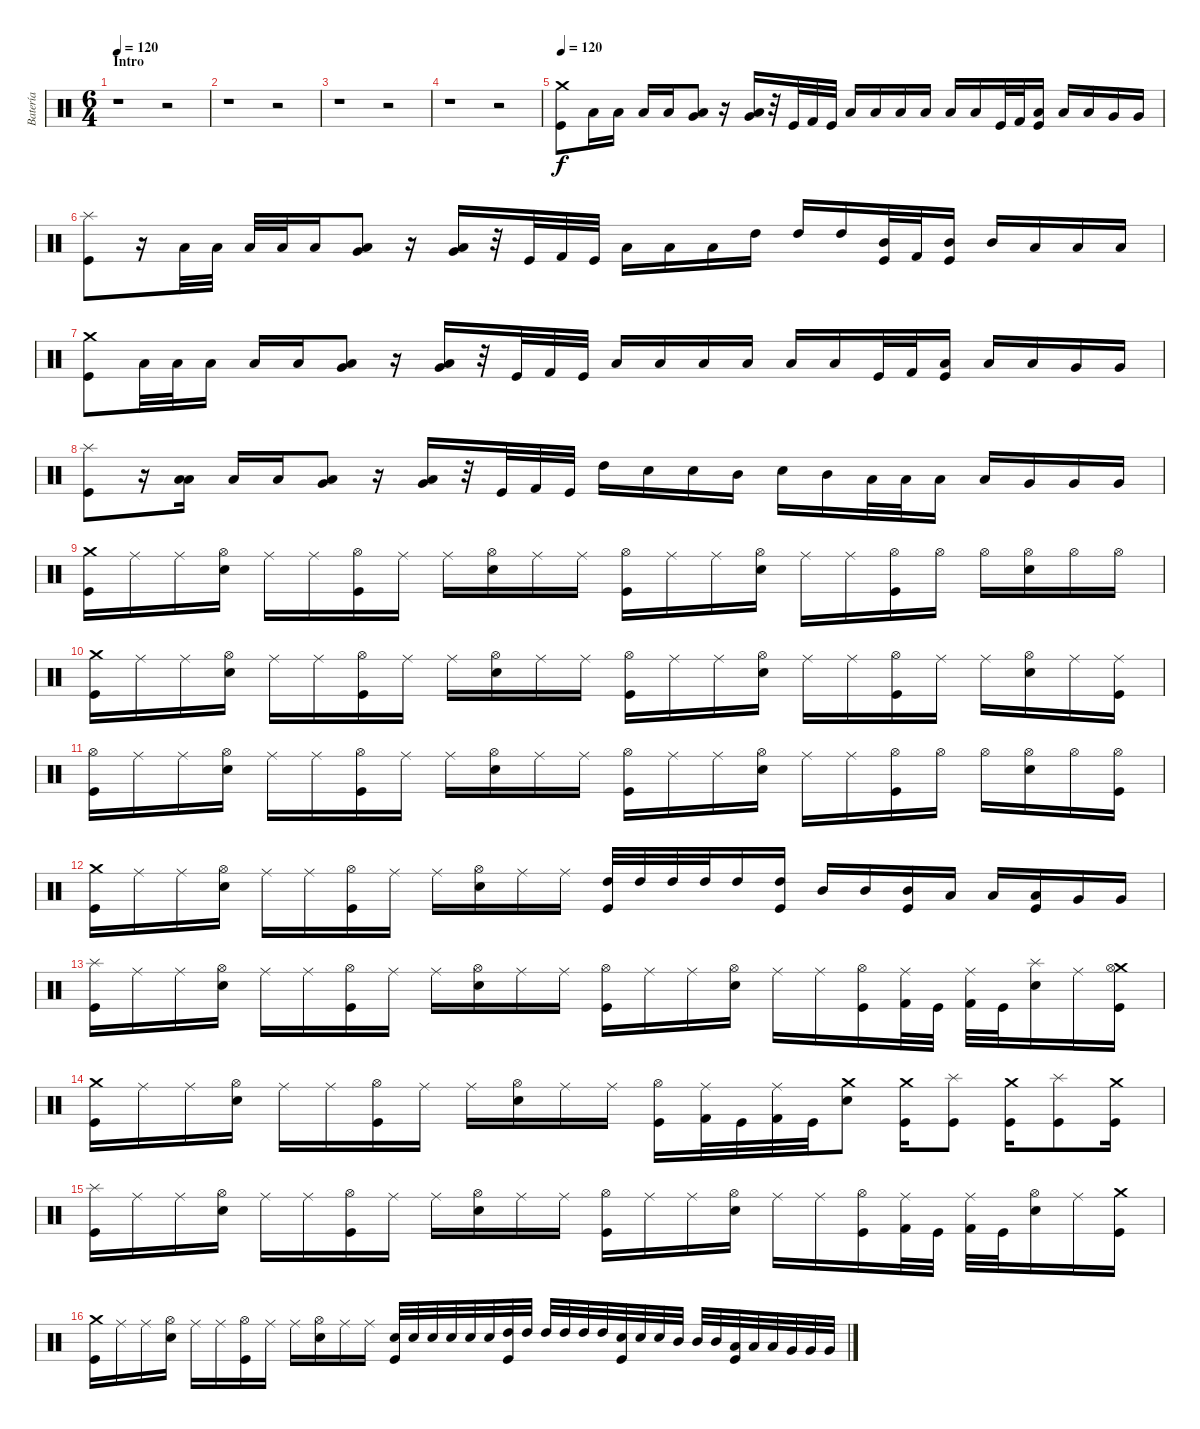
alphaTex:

\track ("Batería" "Batería") {instrument percussion}
\staff {score}
\articulation defaults
\ts (6 4)
\section ("" "Intro")
\tempo 120
\tempo 100
\tempo 120
\clef neutral
\ks c
r.1{dy f} r.2 |
r.1 r.2 |
r.1 r.2 |
r.1 r.2 |
\tempo 120
("Crash medium (hit)" "Kick (hit)").8 "Low Tom (hit)".16 "Low Tom (hit)".16 "Low Tom (hit)".16 "Low Tom (hit)".16 ("Low Tom (hit)" "Very Low Tom (hit)").8 r.16 ("Low Tom (hit)" "Very Low Tom (hit)").16 r.32 "Kick (hit)".32 "Kick (hit) 2".32 "Kick (hit)".32 "Low Tom (hit)".16 "Low Tom (hit)".16 "Low Tom (hit)".16 "Low Tom (hit)".16 "Low Tom (hit)".16 "Low Tom (hit)".16 "Kick (hit)".32 "Kick (hit) 2".32 ("Low Tom (hit)" "Kick (hit)").16 "Low Tom (hit)".16 "Low Tom (hit)".16 "Very Low Tom (hit)".16 "Very Low Tom (hit)".16 |
("Splash (hit)" "Kick (hit)").8 r.16 "Low Tom (hit)".32 "Low Tom (hit)".32 "Low Tom (hit)".32 "Low Tom (hit)".32 "Low Tom (hit)".16 ("Low Tom (hit)" "Very Low Tom (hit)").8 r.16 ("Low Tom (hit)" "Very Low Tom (hit)").16 r.32 "Kick (hit)".32 "Kick (hit) 2".32 "Kick (hit)".32 "Low Floor Tom (hit)".16 "Low Floor Tom (hit)".16 "Low Floor Tom (hit)".16 "High Tom (hit)".16 "High Tom (hit)".16 "High Tom (hit)".16 ("Mid Tom (hit)" "Kick (hit)").32 "Kick (hit) 2".32 ("Mid Tom (hit)" "Kick (hit)").16 "Mid Tom (hit)".16 "Low Tom (hit)".16 "Low Tom (hit)".16 "Low Tom (hit)".16 |
("Crash medium (hit)" "Kick (hit)").8 "Low Tom (hit)".32 "Low Tom (hit)".32 "Low Tom (hit)".16 "Low Tom (hit)".16 "Low Tom (hit)".16 ("Low Tom (hit)" "Very Low Tom (hit)").8 r.16 ("Low Tom (hit)" "Very Low Tom (hit)").16 r.32 "Kick (hit)".32 "Kick (hit) 2".32 "Kick (hit)".32 "Low Tom (hit)".16 "Low Tom (hit)".16 "Low Tom (hit)".16 "Low Tom (hit)".16 "Low Tom (hit)".16 "Low Tom (hit)".16 "Kick (hit)".32 "Kick (hit) 2".32 ("Low Tom (hit)" "Kick (hit)").16 "Low Tom (hit)".16 "Low Tom (hit)".16 "Very Low Tom (hit)".16 "Very Low Tom (hit)".16 |
("Splash (hit)" "Kick (hit)").8 r.16 ("Low Tom (hit)" "Low Tom (hit)").16 "Low Tom (hit)".16 "Low Tom (hit)".16 ("Low Tom (hit)" "Very Low Tom (hit)").8 r.16 ("Low Tom (hit)" "Very Low Tom (hit)").16 r.32 "Kick (hit)".32 "Kick (hit) 2".32 "Kick (hit)".32 "High Tom (hit)".16 "Electric Snare (hit)".16 "Electric Snare (hit)".16 "Mid Tom (hit)".16 "Electric Snare (hit)".16 "Mid Tom (hit)".16 "Low Tom (hit)".32 "Low Tom (hit)".32 "Low Tom (hit)".16 "Low Tom (hit)".16 "Very Low Tom (hit)".16 "Very Low Tom (hit)".16 "Very Low Tom (hit)".16 |
("Crash medium (hit)" "Kick (hit)").16 "Ride (middle)".16 "Ride (middle)".16 ("Hi-Hat (open)" "Electric Snare (hit)").16 "Ride (middle)".16 "Ride (middle)".16 ("Hi-Hat (open)" "Kick (hit)").16 "Ride (middle)".16 "Ride (middle)".16 ("Hi-Hat (open)" "Electric Snare (hit)").16 "Ride (middle)".16 "Ride (middle)".16 ("Hi-Hat (open)" "Kick (hit)").16 "Ride (middle)".16 "Ride (middle)".16 ("Hi-Hat (open)" "Electric Snare (hit)").16 "Ride (middle)".16 "Ride (middle)".16 ("Hi-Hat (open)" "Kick (hit)").16 "Hi-Hat (open)".16 "Hi-Hat (open)".16 ("Hi-Hat (open)" "Electric Snare (hit)").16 "Hi-Hat (open)".16 "Hi-Hat (open)".16 |
("Crash medium (hit)" "Kick (hit)").16 "Ride (middle)".16 "Ride (middle)".16 ("Hi-Hat (open)" "Electric Snare (hit)").16 "Ride (middle)".16 "Ride (middle)".16 ("Hi-Hat (open)" "Kick (hit)").16 "Ride (middle)".16 "Ride (middle)".16 ("Hi-Hat (open)" "Electric Snare (hit)").16 "Ride (middle)".16 "Ride (middle)".16 ("Hi-Hat (open)" "Kick (hit)").16 "Ride (middle)".16 "Ride (middle)".16 ("Hi-Hat (open)" "Electric Snare (hit)").16 "Ride (middle)".16 "Ride (middle)".16 ("Hi-Hat (open)" "Kick (hit)").16 "Ride (middle)".16 "Ride (middle)".16 ("Hi-Hat (open)" "Electric Snare (hit)").16 "Ride (middle)".16 ("Ride (middle)" "Kick (hit)").16 |
("Hi-Hat (open)" "Kick (hit)").16 "Ride (middle)".16 "Ride (middle)".16 ("Hi-Hat (open)" "Electric Snare (hit)").16 "Ride (middle)".16 "Ride (middle)".16 ("Hi-Hat (open)" "Kick (hit)").16 "Ride (middle)".16 "Ride (middle)".16 ("Hi-Hat (open)" "Electric Snare (hit)").16 "Ride (middle)".16 "Ride (middle)".16 ("Hi-Hat (open)" "Kick (hit)").16 "Ride (middle)".16 "Ride (middle)".16 ("Hi-Hat (open)" "Electric Snare (hit)").16 "Ride (middle)".16 "Ride (middle)".16 ("Hi-Hat (open)" "Kick (hit)").16 "Hi-Hat (open)".16 "Hi-Hat (open)".16 ("Hi-Hat (open)" "Electric Snare (hit)").16 "Hi-Hat (open)".16 ("Hi-Hat (open)" "Kick (hit)").16 |
("Crash medium (hit)" "Kick (hit)").16 "Ride (middle)".16 "Ride (middle)".16 ("Hi-Hat (open)" "Electric Snare (hit)").16 "Ride (middle)".16 "Ride (middle)".16 ("Hi-Hat (open)" "Kick (hit)").16 "Ride (middle)".16 "Ride (middle)".16 ("Hi-Hat (open)" "Electric Snare (hit)").16 "Ride (middle)".16 "Ride (middle)".16 ("High Tom (hit)" "Kick (hit)").32 "High Tom (hit)".32 "High Tom (hit)".32 "High Tom (hit)".32 "High Tom (hit)".16 ("High Tom (hit)" "Kick (hit)").16 "Mid Tom (hit)".16 "Mid Tom (hit)".16 ("Mid Tom (hit)" "Kick (hit)").16 "Low Tom (hit)".16 "Low Tom (hit)".16 ("Low Tom (hit)" "Kick (hit)").16 "Very Low Tom (hit)".16 "Very Low Tom (hit)".16 |
("Splash (hit)" "Kick (hit)").16 "Ride (middle)".16 "Ride (middle)".16 ("Hi-Hat (open)" "Electric Snare (hit)").16 "Ride (middle)".16 "Ride (middle)".16 ("Hi-Hat (open)" "Kick (hit)").16 "Ride (middle)".16 "Ride (middle)".16 ("Hi-Hat (open)" "Electric Snare (hit)").16 "Ride (middle)".16 "Ride (middle)".16 ("Hi-Hat (open)" "Kick (hit)").16 "Ride (middle)".16 "Ride (middle)".16 ("Hi-Hat (open)" "Electric Snare (hit)").16 "Ride (middle)".16 "Ride (middle)".16 ("Hi-Hat (open)" "Kick (hit)").16 ("Ride (middle)" "Kick (hit) 2").32 "Kick (hit)".32 ("Ride (middle)" "Kick (hit) 2").32 "Kick (hit)".32 ("Splash (hit)" "Electric Snare (hit)").16 "Ride (middle)".16 ("Crash medium (hit)" "Hi-Hat (open)" "Kick (hit)").16 |
("Crash medium (hit)" "Kick (hit)").16 "Ride (middle)".16 "Ride (middle)".16 ("Hi-Hat (open)" "Electric Snare (hit)").16 "Ride (middle)".16 "Ride (middle)".16 ("Hi-Hat (open)" "Kick (hit)").16 "Ride (middle)".16 "Ride (middle)".16 ("Hi-Hat (open)" "Electric Snare (hit)").16 "Ride (middle)".16 "Ride (middle)".16 ("Hi-Hat (open)" "Kick (hit)").16 ("Ride (middle)" "Kick (hit) 2").32 "Kick (hit)".32 ("Ride (middle)" "Kick (hit) 2").32 "Kick (hit)".32 ("Crash medium (hit)" "Electric Snare (hit)").8 ("Crash medium (hit)" "Kick (hit)").16 ("Splash (hit)" "Kick (hit)").8 ("Crash medium (hit)" "Kick (hit)").16 ("Splash (hit)" "Kick (hit)").8 ("Crash medium (hit)" "Kick (hit)").16 |
("Splash (hit)" "Kick (hit)").16 "Ride (middle)".16 "Ride (middle)".16 ("Hi-Hat (open)" "Electric Snare (hit)").16 "Ride (middle)".16 "Ride (middle)".16 ("Hi-Hat (open)" "Kick (hit)").16 "Ride (middle)".16 "Ride (middle)".16 ("Hi-Hat (open)" "Electric Snare (hit)").16 "Ride (middle)".16 "Ride (middle)".16 ("Hi-Hat (open)" "Kick (hit)").16 "Ride (middle)".16 "Ride (middle)".16 ("Hi-Hat (open)" "Electric Snare (hit)").16 "Ride (middle)".16 "Ride (middle)".16 ("Hi-Hat (open)" "Kick (hit)").16 ("Ride (middle)" "Kick (hit) 2").32 "Kick (hit)".32 ("Ride (middle)" "Kick (hit) 2").32 "Kick (hit)".32 ("Hi-Hat (open)" "Electric Snare (hit)").16 "Ride (middle)".16 ("Crash medium (hit)" "Kick (hit)").16 |
("Crash medium (hit)" "Kick (hit)").16 "Ride (middle)".16 "Ride (middle)".16 ("Hi-Hat (open)" "Electric Snare (hit)").16 "Ride (middle)".16 "Ride (middle)".16 ("Hi-Hat (open)" "Kick (hit)").16 "Ride (middle)".16 "Ride (middle)".16 ("Hi-Hat (open)" "Electric Snare (hit)").16 "Ride (middle)".16 "Ride (middle)".16 ("Electric Snare (hit)" "Kick (hit)").32 "Electric Snare (hit)".32 "Electric Snare (hit)".32 "Electric Snare (hit)".32 "Electric Snare (hit)".32 "Electric Snare (hit)".32 ("High Tom (hit)" "Kick (hit)").32 "High Tom (hit)".32 "High Tom (hit)".32 "High Tom (hit)".32 "High Tom (hit)".32 "High Tom (hit)".32 ("Electric Snare (hit)" "Kick (hit)").32 "Electric Snare (hit)".32 "Electric Snare (hit)".32 "Mid Tom (hit)".32 "Mid Tom (hit)".32 "Mid Tom (hit)".32 ("Low Tom (hit)" "Kick (hit)").32 "Low Tom (hit)".32 "Low Tom (hit)".32 "Very Low Tom (hit)".32 "Very Low Tom (hit)".32 "Very Low Tom (hit)".32
